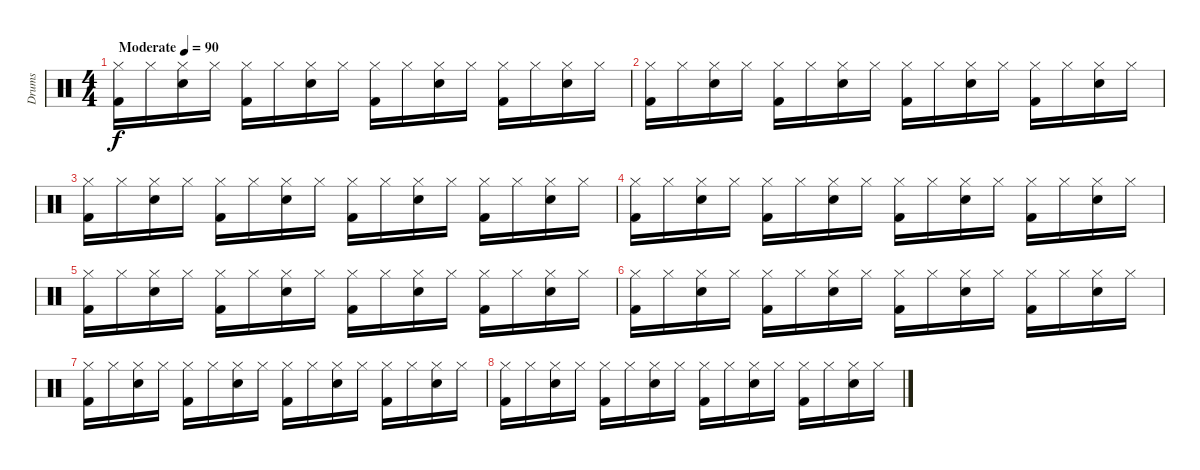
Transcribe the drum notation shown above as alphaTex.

\track ("Drums" "Drums") {instrument percussion}
\staff {score}
\articulation defaults
\ts (4 4)
\tempo (90 "Moderate")
\clef neutral
\ks c
("Kick (hit) 2" "Hi-Hat (closed)").16{dy f} "Hi-Hat (closed)".16 ("Snare (hit) 2" "Hi-Hat (closed)").16 "Hi-Hat (closed)".16 ("Kick (hit) 2" "Hi-Hat (closed)").16 "Hi-Hat (closed)".16 ("Snare (hit) 2" "Hi-Hat (closed)").16 "Hi-Hat (closed)".16 ("Kick (hit) 2" "Hi-Hat (closed)").16 "Hi-Hat (closed)".16 ("Snare (hit) 2" "Hi-Hat (closed)").16 "Hi-Hat (closed)".16 ("Kick (hit) 2" "Hi-Hat (closed)").16 "Hi-Hat (closed)".16 ("Snare (hit) 2" "Hi-Hat (closed)").16 "Hi-Hat (closed)".16 |
("Kick (hit) 2" "Hi-Hat (closed)").16 "Hi-Hat (closed)".16 ("Snare (hit) 2" "Hi-Hat (closed)").16 "Hi-Hat (closed)".16 ("Kick (hit) 2" "Hi-Hat (closed)").16 "Hi-Hat (closed)".16 ("Snare (hit) 2" "Hi-Hat (closed)").16 "Hi-Hat (closed)".16 ("Kick (hit) 2" "Hi-Hat (closed)").16 "Hi-Hat (closed)".16 ("Snare (hit) 2" "Hi-Hat (closed)").16 "Hi-Hat (closed)".16 ("Kick (hit) 2" "Hi-Hat (closed)").16 "Hi-Hat (closed)".16 ("Snare (hit) 2" "Hi-Hat (closed)").16 "Hi-Hat (closed)".16 |
("Kick (hit) 2" "Hi-Hat (closed)").16 "Hi-Hat (closed)".16 ("Snare (hit) 2" "Hi-Hat (closed)").16 "Hi-Hat (closed)".16 ("Kick (hit) 2" "Hi-Hat (closed)").16 "Hi-Hat (closed)".16 ("Snare (hit) 2" "Hi-Hat (closed)").16 "Hi-Hat (closed)".16 ("Kick (hit) 2" "Hi-Hat (closed)").16 "Hi-Hat (closed)".16 ("Snare (hit) 2" "Hi-Hat (closed)").16 "Hi-Hat (closed)".16 ("Kick (hit) 2" "Hi-Hat (closed)").16 "Hi-Hat (closed)".16 ("Snare (hit) 2" "Hi-Hat (closed)").16 "Hi-Hat (closed)".16 |
("Kick (hit) 2" "Hi-Hat (closed)").16 "Hi-Hat (closed)".16 ("Snare (hit) 2" "Hi-Hat (closed)").16 "Hi-Hat (closed)".16 ("Kick (hit) 2" "Hi-Hat (closed)").16 "Hi-Hat (closed)".16 ("Snare (hit) 2" "Hi-Hat (closed)").16 "Hi-Hat (closed)".16 ("Kick (hit) 2" "Hi-Hat (closed)").16 "Hi-Hat (closed)".16 ("Snare (hit) 2" "Hi-Hat (closed)").16 "Hi-Hat (closed)".16 ("Kick (hit) 2" "Hi-Hat (closed)").16 "Hi-Hat (closed)".16 ("Snare (hit) 2" "Hi-Hat (closed)").16 "Hi-Hat (closed)".16 |
("Kick (hit) 2" "Hi-Hat (closed)").16 "Hi-Hat (closed)".16 ("Snare (hit) 2" "Hi-Hat (closed)").16 "Hi-Hat (closed)".16 ("Kick (hit) 2" "Hi-Hat (closed)").16 "Hi-Hat (closed)".16 ("Snare (hit) 2" "Hi-Hat (closed)").16 "Hi-Hat (closed)".16 ("Kick (hit) 2" "Hi-Hat (closed)").16 "Hi-Hat (closed)".16 ("Snare (hit) 2" "Hi-Hat (closed)").16 "Hi-Hat (closed)".16 ("Kick (hit) 2" "Hi-Hat (closed)").16 "Hi-Hat (closed)".16 ("Snare (hit) 2" "Hi-Hat (closed)").16 "Hi-Hat (closed)".16 |
("Kick (hit) 2" "Hi-Hat (closed)").16 "Hi-Hat (closed)".16 ("Snare (hit) 2" "Hi-Hat (closed)").16 "Hi-Hat (closed)".16 ("Kick (hit) 2" "Hi-Hat (closed)").16 "Hi-Hat (closed)".16 ("Snare (hit) 2" "Hi-Hat (closed)").16 "Hi-Hat (closed)".16 ("Kick (hit) 2" "Hi-Hat (closed)").16 "Hi-Hat (closed)".16 ("Snare (hit) 2" "Hi-Hat (closed)").16 "Hi-Hat (closed)".16 ("Kick (hit) 2" "Hi-Hat (closed)").16 "Hi-Hat (closed)".16 ("Snare (hit) 2" "Hi-Hat (closed)").16 "Hi-Hat (closed)".16 |
("Kick (hit) 2" "Hi-Hat (closed)").16 "Hi-Hat (closed)".16 ("Snare (hit) 2" "Hi-Hat (closed)").16 "Hi-Hat (closed)".16 ("Kick (hit) 2" "Hi-Hat (closed)").16 "Hi-Hat (closed)".16 ("Snare (hit) 2" "Hi-Hat (closed)").16 "Hi-Hat (closed)".16 ("Kick (hit) 2" "Hi-Hat (closed)").16 "Hi-Hat (closed)".16 ("Snare (hit) 2" "Hi-Hat (closed)").16 "Hi-Hat (closed)".16 ("Kick (hit) 2" "Hi-Hat (closed)").16 "Hi-Hat (closed)".16 ("Snare (hit) 2" "Hi-Hat (closed)").16 "Hi-Hat (closed)".16 |
("Kick (hit) 2" "Hi-Hat (closed)").16 "Hi-Hat (closed)".16 ("Snare (hit) 2" "Hi-Hat (closed)").16 "Hi-Hat (closed)".16 ("Kick (hit) 2" "Hi-Hat (closed)").16 "Hi-Hat (closed)".16 ("Snare (hit) 2" "Hi-Hat (closed)").16 "Hi-Hat (closed)".16 ("Kick (hit) 2" "Hi-Hat (closed)").16 "Hi-Hat (closed)".16 ("Snare (hit) 2" "Hi-Hat (closed)").16 "Hi-Hat (closed)".16 ("Kick (hit) 2" "Hi-Hat (closed)").16 "Hi-Hat (closed)".16 ("Snare (hit) 2" "Hi-Hat (closed)").16 "Hi-Hat (closed)".16
